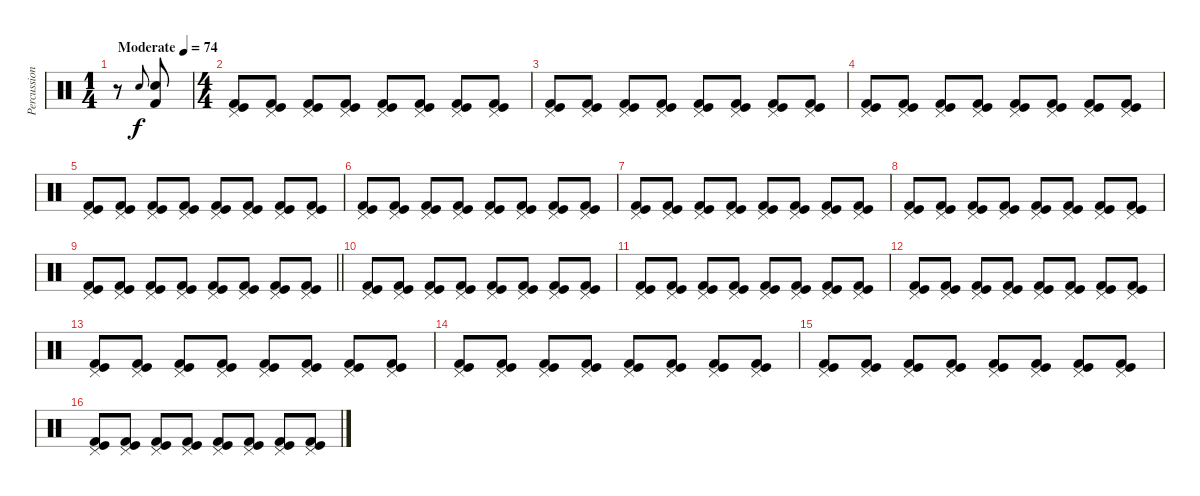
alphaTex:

\track ("Percussion" "Percussion") {instrument percussion}
\staff {score}
\articulation defaults
\ts (1 4)
\tempo (74 "Moderate")
\clef neutral
\ks c
r.8{dy f} "Electric Snare (hit)".8{gr onbeat} ("Electric Snare (hit)" "Kick (hit) 2").8 |
\ts (4 4)
("Pedal Hi-Hat (hit)" "Kick (hit)" "Kick (hit) 2").8 ("Pedal Hi-Hat (hit)" "Kick (hit)" "Kick (hit) 2").8 ("Pedal Hi-Hat (hit)" "Kick (hit)" "Kick (hit) 2").8 ("Pedal Hi-Hat (hit)" "Kick (hit)" "Kick (hit) 2").8 ("Pedal Hi-Hat (hit)" "Kick (hit)" "Kick (hit) 2").8 ("Pedal Hi-Hat (hit)" "Kick (hit)" "Kick (hit) 2").8 ("Pedal Hi-Hat (hit)" "Kick (hit)" "Kick (hit) 2").8 ("Pedal Hi-Hat (hit)" "Kick (hit)" "Kick (hit) 2").8 |
("Pedal Hi-Hat (hit)" "Kick (hit)" "Kick (hit) 2").8 ("Pedal Hi-Hat (hit)" "Kick (hit)" "Kick (hit) 2").8 ("Pedal Hi-Hat (hit)" "Kick (hit)" "Kick (hit) 2").8 ("Pedal Hi-Hat (hit)" "Kick (hit)" "Kick (hit) 2").8 ("Pedal Hi-Hat (hit)" "Kick (hit)" "Kick (hit) 2").8 ("Pedal Hi-Hat (hit)" "Kick (hit)" "Kick (hit) 2").8 ("Pedal Hi-Hat (hit)" "Kick (hit)" "Kick (hit) 2").8 ("Pedal Hi-Hat (hit)" "Kick (hit)" "Kick (hit) 2").8 |
("Pedal Hi-Hat (hit)" "Kick (hit)" "Kick (hit) 2").8 ("Pedal Hi-Hat (hit)" "Kick (hit)" "Kick (hit) 2").8 ("Pedal Hi-Hat (hit)" "Kick (hit)" "Kick (hit) 2").8 ("Pedal Hi-Hat (hit)" "Kick (hit)" "Kick (hit) 2").8 ("Pedal Hi-Hat (hit)" "Kick (hit)" "Kick (hit) 2").8 ("Pedal Hi-Hat (hit)" "Kick (hit)" "Kick (hit) 2").8 ("Pedal Hi-Hat (hit)" "Kick (hit)" "Kick (hit) 2").8 ("Pedal Hi-Hat (hit)" "Kick (hit)" "Kick (hit) 2").8 |
("Pedal Hi-Hat (hit)" "Kick (hit)" "Kick (hit) 2").8 ("Pedal Hi-Hat (hit)" "Kick (hit)" "Kick (hit) 2").8 ("Pedal Hi-Hat (hit)" "Kick (hit)" "Kick (hit) 2").8 ("Pedal Hi-Hat (hit)" "Kick (hit)" "Kick (hit) 2").8 ("Pedal Hi-Hat (hit)" "Kick (hit)" "Kick (hit) 2").8 ("Pedal Hi-Hat (hit)" "Kick (hit)" "Kick (hit) 2").8 ("Pedal Hi-Hat (hit)" "Kick (hit)" "Kick (hit) 2").8 ("Pedal Hi-Hat (hit)" "Kick (hit)" "Kick (hit) 2").8 |
("Pedal Hi-Hat (hit)" "Kick (hit)" "Kick (hit) 2").8 ("Pedal Hi-Hat (hit)" "Kick (hit)" "Kick (hit) 2").8 ("Pedal Hi-Hat (hit)" "Kick (hit)" "Kick (hit) 2").8 ("Pedal Hi-Hat (hit)" "Kick (hit)" "Kick (hit) 2").8 ("Pedal Hi-Hat (hit)" "Kick (hit)" "Kick (hit) 2").8 ("Pedal Hi-Hat (hit)" "Kick (hit)" "Kick (hit) 2").8 ("Pedal Hi-Hat (hit)" "Kick (hit)" "Kick (hit) 2").8 ("Pedal Hi-Hat (hit)" "Kick (hit)" "Kick (hit) 2").8 |
("Pedal Hi-Hat (hit)" "Kick (hit)" "Kick (hit) 2").8 ("Pedal Hi-Hat (hit)" "Kick (hit)" "Kick (hit) 2").8 ("Pedal Hi-Hat (hit)" "Kick (hit)" "Kick (hit) 2").8 ("Pedal Hi-Hat (hit)" "Kick (hit)" "Kick (hit) 2").8 ("Pedal Hi-Hat (hit)" "Kick (hit)" "Kick (hit) 2").8 ("Pedal Hi-Hat (hit)" "Kick (hit)" "Kick (hit) 2").8 ("Pedal Hi-Hat (hit)" "Kick (hit)" "Kick (hit) 2").8 ("Pedal Hi-Hat (hit)" "Kick (hit)" "Kick (hit) 2").8 |
("Pedal Hi-Hat (hit)" "Kick (hit)" "Kick (hit) 2").8 ("Pedal Hi-Hat (hit)" "Kick (hit)" "Kick (hit) 2").8 ("Pedal Hi-Hat (hit)" "Kick (hit)" "Kick (hit) 2").8 ("Pedal Hi-Hat (hit)" "Kick (hit)" "Kick (hit) 2").8 ("Pedal Hi-Hat (hit)" "Kick (hit)" "Kick (hit) 2").8 ("Pedal Hi-Hat (hit)" "Kick (hit)" "Kick (hit) 2").8 ("Pedal Hi-Hat (hit)" "Kick (hit)" "Kick (hit) 2").8 ("Pedal Hi-Hat (hit)" "Kick (hit)" "Kick (hit) 2").8 |
\barLineRight lightlight
("Pedal Hi-Hat (hit)" "Kick (hit)" "Kick (hit) 2").8 ("Pedal Hi-Hat (hit)" "Kick (hit)" "Kick (hit) 2").8 ("Pedal Hi-Hat (hit)" "Kick (hit)" "Kick (hit) 2").8 ("Pedal Hi-Hat (hit)" "Kick (hit)" "Kick (hit) 2").8 ("Pedal Hi-Hat (hit)" "Kick (hit)" "Kick (hit) 2").8 ("Pedal Hi-Hat (hit)" "Kick (hit)" "Kick (hit) 2").8 ("Pedal Hi-Hat (hit)" "Kick (hit)" "Kick (hit) 2").8 ("Pedal Hi-Hat (hit)" "Kick (hit)" "Kick (hit) 2").8 |
\section ("" "")
("Pedal Hi-Hat (hit)" "Kick (hit)" "Kick (hit) 2").8 ("Pedal Hi-Hat (hit)" "Kick (hit)" "Kick (hit) 2").8 ("Pedal Hi-Hat (hit)" "Kick (hit)" "Kick (hit) 2").8 ("Pedal Hi-Hat (hit)" "Kick (hit)" "Kick (hit) 2").8 ("Pedal Hi-Hat (hit)" "Kick (hit)" "Kick (hit) 2").8 ("Pedal Hi-Hat (hit)" "Kick (hit)" "Kick (hit) 2").8 ("Pedal Hi-Hat (hit)" "Kick (hit)" "Kick (hit) 2").8 ("Pedal Hi-Hat (hit)" "Kick (hit)" "Kick (hit) 2").8 |
("Pedal Hi-Hat (hit)" "Kick (hit)" "Kick (hit) 2").8 ("Pedal Hi-Hat (hit)" "Kick (hit)" "Kick (hit) 2").8 ("Pedal Hi-Hat (hit)" "Kick (hit)" "Kick (hit) 2").8 ("Pedal Hi-Hat (hit)" "Kick (hit)" "Kick (hit) 2").8 ("Pedal Hi-Hat (hit)" "Kick (hit)" "Kick (hit) 2").8 ("Pedal Hi-Hat (hit)" "Kick (hit)" "Kick (hit) 2").8 ("Pedal Hi-Hat (hit)" "Kick (hit)" "Kick (hit) 2").8 ("Pedal Hi-Hat (hit)" "Kick (hit)" "Kick (hit) 2").8 |
("Pedal Hi-Hat (hit)" "Kick (hit)" "Kick (hit) 2").8 ("Pedal Hi-Hat (hit)" "Kick (hit)" "Kick (hit) 2").8 ("Pedal Hi-Hat (hit)" "Kick (hit)" "Kick (hit) 2").8 ("Pedal Hi-Hat (hit)" "Kick (hit)" "Kick (hit) 2").8 ("Pedal Hi-Hat (hit)" "Kick (hit)" "Kick (hit) 2").8 ("Pedal Hi-Hat (hit)" "Kick (hit)" "Kick (hit) 2").8 ("Pedal Hi-Hat (hit)" "Kick (hit)" "Kick (hit) 2").8 ("Pedal Hi-Hat (hit)" "Kick (hit)" "Kick (hit) 2").8 |
("Pedal Hi-Hat (hit)" "Kick (hit)" "Kick (hit) 2").8 ("Pedal Hi-Hat (hit)" "Kick (hit)" "Kick (hit) 2").8 ("Pedal Hi-Hat (hit)" "Kick (hit)" "Kick (hit) 2").8 ("Pedal Hi-Hat (hit)" "Kick (hit)" "Kick (hit) 2").8 ("Pedal Hi-Hat (hit)" "Kick (hit)" "Kick (hit) 2").8 ("Pedal Hi-Hat (hit)" "Kick (hit)" "Kick (hit) 2").8 ("Pedal Hi-Hat (hit)" "Kick (hit)" "Kick (hit) 2").8 ("Pedal Hi-Hat (hit)" "Kick (hit)" "Kick (hit) 2").8 |
("Pedal Hi-Hat (hit)" "Kick (hit)" "Kick (hit) 2").8 ("Pedal Hi-Hat (hit)" "Kick (hit)" "Kick (hit) 2").8 ("Pedal Hi-Hat (hit)" "Kick (hit)" "Kick (hit) 2").8 ("Pedal Hi-Hat (hit)" "Kick (hit)" "Kick (hit) 2").8 ("Pedal Hi-Hat (hit)" "Kick (hit)" "Kick (hit) 2").8 ("Pedal Hi-Hat (hit)" "Kick (hit)" "Kick (hit) 2").8 ("Pedal Hi-Hat (hit)" "Kick (hit)" "Kick (hit) 2").8 ("Pedal Hi-Hat (hit)" "Kick (hit)" "Kick (hit) 2").8 |
("Pedal Hi-Hat (hit)" "Kick (hit)" "Kick (hit) 2").8 ("Pedal Hi-Hat (hit)" "Kick (hit)" "Kick (hit) 2").8 ("Pedal Hi-Hat (hit)" "Kick (hit)" "Kick (hit) 2").8 ("Pedal Hi-Hat (hit)" "Kick (hit)" "Kick (hit) 2").8 ("Pedal Hi-Hat (hit)" "Kick (hit)" "Kick (hit) 2").8 ("Pedal Hi-Hat (hit)" "Kick (hit)" "Kick (hit) 2").8 ("Pedal Hi-Hat (hit)" "Kick (hit)" "Kick (hit) 2").8 ("Pedal Hi-Hat (hit)" "Kick (hit)" "Kick (hit) 2").8 |
("Pedal Hi-Hat (hit)" "Kick (hit)" "Kick (hit) 2").8 ("Pedal Hi-Hat (hit)" "Kick (hit)" "Kick (hit) 2").8 ("Pedal Hi-Hat (hit)" "Kick (hit)" "Kick (hit) 2").8 ("Pedal Hi-Hat (hit)" "Kick (hit)" "Kick (hit) 2").8 ("Pedal Hi-Hat (hit)" "Kick (hit)" "Kick (hit) 2").8 ("Pedal Hi-Hat (hit)" "Kick (hit)" "Kick (hit) 2").8 ("Pedal Hi-Hat (hit)" "Kick (hit)" "Kick (hit) 2").8 ("Pedal Hi-Hat (hit)" "Kick (hit)" "Kick (hit) 2").8
